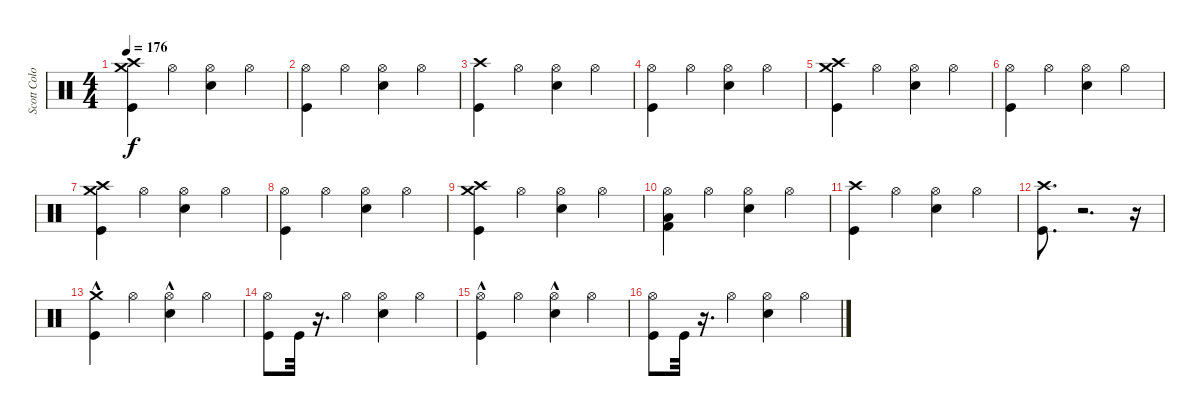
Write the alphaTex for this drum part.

\track ("Scott Colombus" "Scott Colo") {instrument percussion}
\staff {score}
\articulation defaults
\ts (4 4)
\tempo 176
\clef neutral
\ks c
("Crash medium (hit)" "Crash high (hit)" "Kick (hit)").4{dy f} "Hi-Hat (open)".4 ("Hi-Hat (open)" "Snare (hit) 2").4 "Hi-Hat (open)".4 |
("Hi-Hat (open)" "Kick (hit)").4 "Hi-Hat (open)".4 ("Hi-Hat (open)" "Snare (hit) 2").4 "Hi-Hat (open)".4 |
("Crash high (hit)" "Kick (hit)").4 "Hi-Hat (open)".4 ("Hi-Hat (open)" "Snare (hit) 2").4 "Hi-Hat (open)".4 |
("Hi-Hat (open)" "Kick (hit)").4 "Hi-Hat (open)".4 ("Hi-Hat (open)" "Snare (hit) 2").4 "Hi-Hat (open)".4 |
("Crash medium (hit)" "Crash high (hit)" "Kick (hit)").4 "Hi-Hat (open)".4 ("Hi-Hat (open)" "Snare (hit) 2").4 "Hi-Hat (open)".4 |
("Hi-Hat (open)" "Kick (hit)").4 "Hi-Hat (open)".4 ("Hi-Hat (open)" "Snare (hit) 2").4 "Hi-Hat (open)".4 |
("Crash medium (hit)" "Crash high (hit)" "Kick (hit)").4 "Hi-Hat (open)".4 ("Hi-Hat (open)" "Snare (hit) 2").4 "Hi-Hat (open)".4 |
("Hi-Hat (open)" "Kick (hit)").4 "Hi-Hat (open)".4 ("Hi-Hat (open)" "Snare (hit) 2").4 "Hi-Hat (open)".4 |
("Crash medium (hit)" "Crash high (hit)" "Kick (hit)").4 "Hi-Hat (open)".4 ("Hi-Hat (open)" "Snare (hit) 2").4 "Hi-Hat (open)".4 |
("Low Floor Tom (hit)" "Hi-Hat (open)" "Kick (hit) 2").4 "Hi-Hat (open)".4 ("Hi-Hat (open)" "Snare (hit) 2").4 "Hi-Hat (open)".4 |
("Crash high (hit)" "Kick (hit)").4 "Hi-Hat (open)".4 ("Hi-Hat (open)" "Snare (hit) 2").4 "Hi-Hat (open)".4 |
("Crash high (hit)" "Kick (hit)").8{d} r.2{d} r.16 |
("Crash medium (hit)" "Kick (hit)"{hac}).4 "Hi-Hat (open)".4 ("Hi-Hat (open)" "Snare (hit) 2"{hac}).4 "Hi-Hat (open)".4 |
("Hi-Hat (open)" "Kick (hit)").8 "Kick (hit)".32 r.16{d} "Hi-Hat (open)".4 ("Hi-Hat (open)" "Snare (hit) 2").4 "Hi-Hat (open)".4 |
("Hi-Hat (open)" "Kick (hit)"{hac}).4 "Hi-Hat (open)".4 ("Hi-Hat (open)" "Snare (hit) 2"{hac}).4 "Hi-Hat (open)".4 |
("Hi-Hat (open)" "Kick (hit)").8 "Kick (hit)".32 r.16{d} "Hi-Hat (open)".4 ("Hi-Hat (open)" "Snare (hit) 2").4 "Hi-Hat (open)".4
